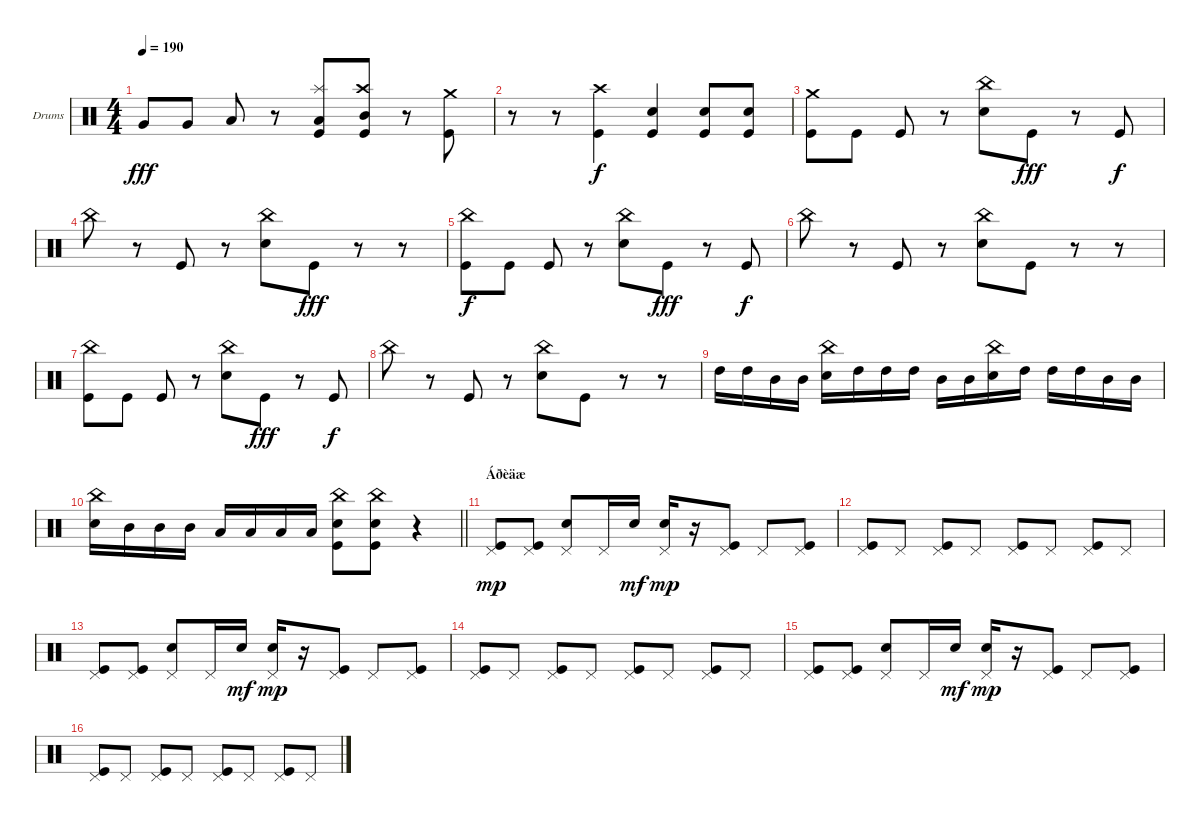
\bracketExtendMode groupsimilarinstruments
\firstSystemTrackNameOrientation horizontal
\otherSystemsTrackNameOrientation horizontal
\track ("Drumkit" "Drums") {instrument percussion}
\staff {score}
\articulation defaults
\ts (4 4)
\tempo 190
\clef neutral
\ks c "Very Low Tom (hit)".8{dy fff} "Very Low Tom (hit)".8 "Low Tom (hit)".8
r.8 ("Splash (hit)" "Low Tom (hit)" "Kick (hit)").8 ("Crash high (hit)" "Mid Tom (hit)" "Kick (hit)").8 r.8 ("Crash medium (hit)" "Kick (hit)").8 |
r.8 r.8 ("Crash high (hit)" "Kick (hit)").4{dy f} ("Snare (hit) 2" "Kick (hit)").4 ("Snare (hit) 2" "Kick (hit)").8 ("Snare (hit) 2" "Kick (hit)").8 |
("Crash medium (hit)" "Kick (hit)").8 "Kick (hit)".8 "Kick (hit)".8 r.8 ("China (hit)" "Snare (hit) 2").8 "Kick (hit)".8{dy fff} r.8 "Kick (hit)".8{dy f} |
"China (hit)".8 r.8 "Kick (hit)".8 r.8 ("China (hit)" "Snare (hit) 2").8 "Kick (hit)".8{dy fff} r.8 r.8 |
("China (hit)" "Kick (hit)").8{dy f} "Kick (hit)".8 "Kick (hit)".8 r.8 ("China (hit)" "Snare (hit) 2").8 "Kick (hit)".8{dy fff} r.8 "Kick (hit)".8{dy f} |
"China (hit)".8 r.8 "Kick (hit)".8 r.8 ("China (hit)" "Snare (hit) 2").8 "Kick (hit)".8 r.8 r.8 |
("China (hit)" "Kick (hit)").8 "Kick (hit)".8 "Kick (hit)".8 r.8 ("China (hit)" "Snare (hit) 2").8 "Kick (hit)".8{dy fff} r.8 "Kick (hit)".8{dy f} |
"China (hit)".8 r.8 "Kick (hit)".8 r.8 ("China (hit)" "Snare (hit) 2").8 "Kick (hit)".8 r.8 r.8 |
"High Tom (hit)".16 "High Tom (hit)".16 "Mid Tom (hit)".16 "Mid Tom (hit)".16 ("China (hit)" "Snare (hit) 2").16 "High Tom (hit)".16 "High Tom (hit)".16 "High Tom (hit)".16 "Mid Tom (hit)".16 "Mid Tom (hit)".16 ("China (hit)" "Snare (hit) 2").16 "High Tom (hit)".16 "High Tom (hit)".16 "High Tom (hit)".16 "Mid Tom (hit)".16 "Mid Tom (hit)".16 |
\barLineRight lightlight
("China (hit)" "Snare (hit) 2").16 "Mid Tom (hit)".16 "Mid Tom (hit)".16 "Mid Tom (hit)".16 "Low Tom (hit)".16 "Low Tom (hit)".16 "Low Tom (hit)".16 "Low Tom (hit)".16 ("China (hit)" "Snare (hit) 2" "Kick (hit)").8 ("China (hit)" "Snare (hit) 2" "Kick (hit)").8 r.4 |
\section ("" "Áðèäæ")
("Pedal Hi-Hat (hit)" "Kick (hit)").8{dy mp} ("Pedal Hi-Hat (hit)" "Kick (hit)").8 ("Pedal Hi-Hat (hit)" "Snare (hit) 2").8 "Pedal Hi-Hat (hit)".16 "Snare (hit) 2".16{dy mf} ("Pedal Hi-Hat (hit)" "Snare (hit) 2").16{dy mp} r.16 ("Pedal Hi-Hat (hit)" "Kick (hit)").8 "Pedal Hi-Hat (hit)".8 ("Pedal Hi-Hat (hit)" "Kick (hit)").8 |
("Pedal Hi-Hat (hit)" "Kick (hit)").8 "Pedal Hi-Hat (hit)".8 ("Pedal Hi-Hat (hit)" "Kick (hit)").8 "Pedal Hi-Hat (hit)".8 ("Pedal Hi-Hat (hit)" "Kick (hit)").8 "Pedal Hi-Hat (hit)".8 ("Pedal Hi-Hat (hit)" "Kick (hit)").8 "Pedal Hi-Hat (hit)".8 |
("Pedal Hi-Hat (hit)" "Kick (hit)").8 ("Pedal Hi-Hat (hit)" "Kick (hit)").8 ("Pedal Hi-Hat (hit)" "Snare (hit) 2").8 "Pedal Hi-Hat (hit)".16 "Snare (hit) 2".16{dy mf} ("Pedal Hi-Hat (hit)" "Snare (hit) 2").16{dy mp} r.16 ("Pedal Hi-Hat (hit)" "Kick (hit)").8 "Pedal Hi-Hat (hit)".8 ("Pedal Hi-Hat (hit)" "Kick (hit)").8 |
("Pedal Hi-Hat (hit)" "Kick (hit)").8 "Pedal Hi-Hat (hit)".8 ("Pedal Hi-Hat (hit)" "Kick (hit)").8 "Pedal Hi-Hat (hit)".8 ("Pedal Hi-Hat (hit)" "Kick (hit)").8 "Pedal Hi-Hat (hit)".8 ("Pedal Hi-Hat (hit)" "Kick (hit)").8 "Pedal Hi-Hat (hit)".8 |
("Pedal Hi-Hat (hit)" "Kick (hit)").8 ("Pedal Hi-Hat (hit)" "Kick (hit)").8 ("Pedal Hi-Hat (hit)" "Snare (hit) 2").8 "Pedal Hi-Hat (hit)".16 "Snare (hit) 2".16{dy mf} ("Pedal Hi-Hat (hit)" "Snare (hit) 2").16{dy mp} r.16 ("Pedal Hi-Hat (hit)" "Kick (hit)").8 "Pedal Hi-Hat (hit)".8 ("Pedal Hi-Hat (hit)" "Kick (hit)").8 |
("Pedal Hi-Hat (hit)" "Kick (hit)").8 "Pedal Hi-Hat (hit)".8 ("Pedal Hi-Hat (hit)" "Kick (hit)").8 "Pedal Hi-Hat (hit)".8 ("Pedal Hi-Hat (hit)" "Kick (hit)").8 "Pedal Hi-Hat (hit)".8 ("Pedal Hi-Hat (hit)" "Kick (hit)").8 "Pedal Hi-Hat (hit)".8
